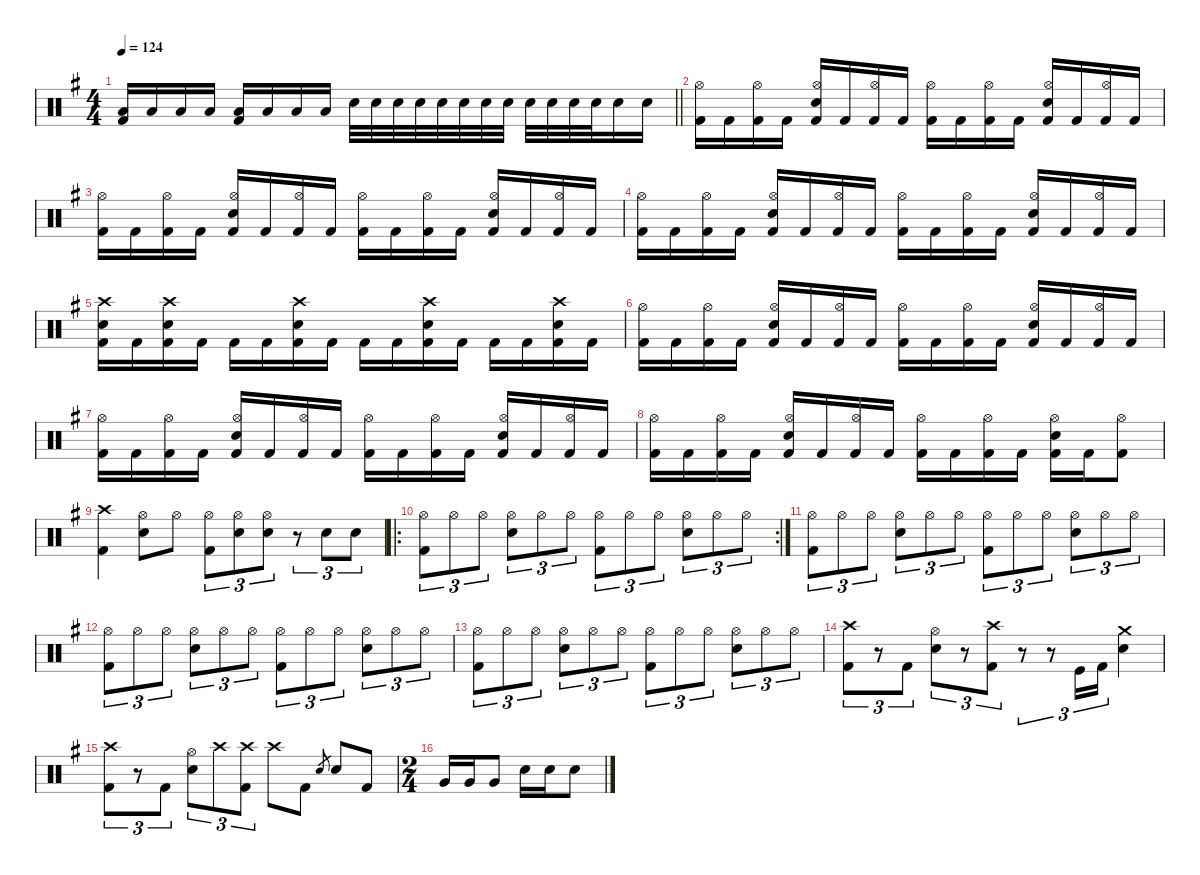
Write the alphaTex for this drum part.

\defaultSystemsLayout 4
\hideDynamics
\bracketExtendMode nobrackets
\singleTrackTrackNamePolicy hidden
\multiTrackTrackNamePolicy hidden
\otherSystemsTrackNameOrientation horizontal
\track ("Drums" "drm.") {defaultSystemsLayout 4 instrument percussion}
\staff {score}
\articulation defaults
\ts (4 4)
\tempo 124
\clef neutral
\barLineRight lightlight
\ks eminor
("Low Floor Tom (hit)"{acc forcenatural} "Kick (hit) 2"{acc forcenatural}).16{dy mf beam Up} "Low Floor Tom (hit)"{acc forcenatural}.16{dy mp beam Up} "Low Floor Tom (hit)"{acc forcenatural}.16{dy mf beam Up} "Low Floor Tom (hit)"{acc forcenatural}.16{dy mp beam Up} ("Low Floor Tom (hit)"{acc forcenatural} "Kick (hit) 2"{acc forcenatural}).16{dy mf beam Up} "Low Floor Tom (hit)"{acc forcenatural}.16{dy mp beam Up} "Low Floor Tom (hit)"{acc forcenatural}.16{dy mf beam Up} "Low Floor Tom (hit)"{acc forcenatural}.16{dy p beam Up} "Snare (hit) 2"{acc forcenatural}.32{dy ff beam Down} "Snare (hit) 2"{acc forcenatural}.32{dy mp beam Down} "Snare (hit) 2"{acc forcenatural}.32{dy mf beam Down} "Snare (hit) 2"{acc forcenatural}.32{dy pp beam Down} "Snare (hit) 2"{acc forcenatural}.32{dy ff beam Down} "Snare (hit) 2"{acc forcenatural}.32{dy mp beam Down} "Snare (hit) 2"{acc forcenatural}.32{dy mf beam Down} "Snare (hit) 2"{acc forcenatural}.32{dy pp beam Down} "Snare (hit) 2"{acc forcenatural}.32{dy ff beam Down} "Snare (hit) 2"{acc forcenatural}.32{dy mp beam Down} "Snare (hit) 2"{acc forcenatural}.32{dy mf beam Down} "Snare (hit) 2"{acc forcenatural}.32{dy pp beam Down} "Snare (hit) 2"{acc forcenatural}.16{dy ff beam Down} "Snare (hit) 2"{acc forcenatural}.16{beam Down} |
("Hi-Hat (open)"{acc forcenatural} "Kick (hit) 2"{acc forcenatural}).16{dy mf beam Down} "Kick (hit) 2"{acc forcenatural}.16{dy ff beam Down} ("Hi-Hat (open)"{acc forcenatural} "Kick (hit) 2"{acc forcenatural}).16{dy mf beam Down} "Kick (hit) 2"{acc forcenatural}.16{dy ff beam Down} ("Hi-Hat (open)"{acc forcenatural} "Snare (hit) 2"{acc forcenatural} "Kick (hit) 2"{acc forcenatural}).16{dy mf beam Up} "Kick (hit) 2"{acc forcenatural}.16{dy ff beam Up} ("Hi-Hat (open)"{acc forcenatural} "Kick (hit) 2"{acc forcenatural}).16{dy mf beam Up} "Kick (hit) 2"{acc forcenatural}.16{dy ff beam Up} ("Hi-Hat (open)"{acc forcenatural} "Kick (hit) 2"{acc forcenatural}).16{dy mf beam Down} "Kick (hit) 2"{acc forcenatural}.16{dy ff beam Down} ("Hi-Hat (open)"{acc forcenatural} "Kick (hit) 2"{acc forcenatural}).16{dy mf beam Down} "Kick (hit) 2"{acc forcenatural}.16{dy ff beam Down} ("Hi-Hat (open)"{acc forcenatural} "Snare (hit) 2"{acc forcenatural} "Kick (hit) 2"{acc forcenatural}).16{dy mf beam Up} "Kick (hit) 2"{acc forcenatural}.16{dy ff beam Up} ("Hi-Hat (open)"{acc forcenatural} "Kick (hit) 2"{acc forcenatural}).16{dy mf beam Up} "Kick (hit) 2"{acc forcenatural}.16{dy ff beam Up} |
("Hi-Hat (open)"{acc forcenatural} "Kick (hit) 2"{acc forcenatural}).16{dy mf beam Down} "Kick (hit) 2"{acc forcenatural}.16{dy ff beam Down} ("Hi-Hat (open)"{acc forcenatural} "Kick (hit) 2"{acc forcenatural}).16{dy mf beam Down} "Kick (hit) 2"{acc forcenatural}.16{dy ff beam Down} ("Hi-Hat (open)"{acc forcenatural} "Snare (hit) 2"{acc forcenatural} "Kick (hit) 2"{acc forcenatural}).16{dy mf beam Up} "Kick (hit) 2"{acc forcenatural}.16{dy ff beam Up} ("Hi-Hat (open)"{acc forcenatural} "Kick (hit) 2"{acc forcenatural}).16{dy mf beam Up} "Kick (hit) 2"{acc forcenatural}.16{dy ff beam Up} ("Hi-Hat (open)"{acc forcenatural} "Kick (hit) 2"{acc forcenatural}).16{dy mf beam Down} "Kick (hit) 2"{acc forcenatural}.16{dy ff beam Down} ("Hi-Hat (open)"{acc forcenatural} "Kick (hit) 2"{acc forcenatural}).16{dy mf beam Down} "Kick (hit) 2"{acc forcenatural}.16{dy ff beam Down} ("Hi-Hat (open)"{acc forcenatural} "Snare (hit) 2"{acc forcenatural} "Kick (hit) 2"{acc forcenatural}).16{dy mf beam Up} "Kick (hit) 2"{acc forcenatural}.16{dy ff beam Up} ("Hi-Hat (open)"{acc forcenatural} "Kick (hit) 2"{acc forcenatural}).16{dy mp beam Up} "Kick (hit) 2"{acc forcenatural}.16{dy ff beam Up} |
("Hi-Hat (open)"{acc forcenatural} "Kick (hit) 2"{acc forcenatural}).16{dy mf beam Down} "Kick (hit) 2"{acc forcenatural}.16{dy ff beam Down} ("Hi-Hat (open)"{acc forcenatural} "Kick (hit) 2"{acc forcenatural}).16{dy mf beam Down} "Kick (hit) 2"{acc forcenatural}.16{dy ff beam Down} ("Hi-Hat (open)"{acc forcenatural} "Snare (hit) 2"{acc forcenatural} "Kick (hit) 2"{acc forcenatural}).16{dy mf beam Up} "Kick (hit) 2"{acc forcenatural}.16{dy ff beam Up} ("Hi-Hat (open)"{acc forcenatural} "Kick (hit) 2"{acc forcenatural}).16{dy mp beam Up} "Kick (hit) 2"{acc forcenatural}.16{dy ff beam Up} ("Hi-Hat (open)"{acc forcenatural} "Kick (hit) 2"{acc forcenatural}).16{dy mf beam Down} "Kick (hit) 2"{acc forcenatural}.16{dy ff beam Down} ("Hi-Hat (open)"{acc forcenatural} "Kick (hit) 2"{acc forcenatural}).16{dy mf beam Down} "Kick (hit) 2"{acc forcenatural}.16{dy ff beam Down} ("Hi-Hat (open)"{acc forcenatural} "Snare (hit) 2"{acc forcenatural} "Kick (hit) 2"{acc forcenatural}).16{dy mf beam Up} "Kick (hit) 2"{acc forcenatural}.16{dy ff beam Up} ("Hi-Hat (open)"{acc forcenatural} "Kick (hit) 2"{acc forcenatural}).16{dy mf beam Up} "Kick (hit) 2"{acc forcenatural}.16{dy ff beam Up} |
("Crash high (hit)"{acc forcenatural} "Snare (hit) 2"{acc forcenatural} "Kick (hit) 2"{acc forcenatural}).16{dy mf beam Down} "Kick (hit) 2"{acc forcenatural}.16{dy ff beam Down} ("Crash high (hit)"{acc forcenatural} "Snare (hit) 2"{acc forcenatural} "Kick (hit) 2"{acc forcenatural}).16{dy mf beam Down} "Kick (hit) 2"{acc forcenatural}.16{dy ff beam Down} "Kick (hit) 2"{acc forcenatural}.16{dy mf beam Down} "Kick (hit) 2"{acc forcenatural}.16{beam Down} ("Crash high (hit)"{acc forcenatural} "Snare (hit) 2"{acc forcenatural} "Kick (hit) 2"{acc forcenatural}).16{beam Down} "Kick (hit) 2"{acc forcenatural}.16{dy ff beam Down} "Kick (hit) 2"{acc forcenatural}.16{dy mf beam Down} "Kick (hit) 2"{acc forcenatural}.16{beam Down} ("Crash high (hit)"{acc forcenatural} "Snare (hit) 2"{acc forcenatural} "Kick (hit) 2"{acc forcenatural}).16{dy f beam Down} "Kick (hit) 2"{acc forcenatural}.16{dy ff beam Down} "Kick (hit) 2"{acc forcenatural}.16{dy mf beam Down} "Kick (hit) 2"{acc forcenatural}.16{beam Down} ("Crash high (hit)"{acc forcenatural} "Snare (hit) 2"{acc forcenatural} "Kick (hit) 2"{acc forcenatural}).16{dy f beam Down} "Kick (hit) 2"{acc forcenatural}.16{dy ff beam Down} |
("Hi-Hat (open)"{acc forcenatural} "Kick (hit) 2"{acc forcenatural}).16{dy mf beam Down} "Kick (hit) 2"{acc forcenatural}.16{dy ff beam Down} ("Hi-Hat (open)"{acc forcenatural} "Kick (hit) 2"{acc forcenatural}).16{dy mf beam Down} "Kick (hit) 2"{acc forcenatural}.16{dy ff beam Down} ("Hi-Hat (open)"{acc forcenatural} "Snare (hit) 2"{acc forcenatural} "Kick (hit) 2"{acc forcenatural}).16{dy mf beam Up} "Kick (hit) 2"{acc forcenatural}.16{dy ff beam Up} ("Hi-Hat (open)"{acc forcenatural} "Kick (hit) 2"{acc forcenatural}).16{dy mf beam Up} "Kick (hit) 2"{acc forcenatural}.16{dy ff beam Up} ("Hi-Hat (open)"{acc forcenatural} "Kick (hit) 2"{acc forcenatural}).16{dy mf beam Down} "Kick (hit) 2"{acc forcenatural}.16{dy ff beam Down} ("Hi-Hat (open)"{acc forcenatural} "Kick (hit) 2"{acc forcenatural}).16{dy mf beam Down} "Kick (hit) 2"{acc forcenatural}.16{dy ff beam Down} ("Hi-Hat (open)"{acc forcenatural} "Snare (hit) 2"{acc forcenatural} "Kick (hit) 2"{acc forcenatural}).16{dy mf beam Up} "Kick (hit) 2"{acc forcenatural}.16{dy ff beam Up} ("Hi-Hat (open)"{acc forcenatural} "Kick (hit) 2"{acc forcenatural}).16{dy mf beam Up} "Kick (hit) 2"{acc forcenatural}.16{dy ff beam Up} |
("Hi-Hat (open)"{acc forcenatural} "Kick (hit) 2"{acc forcenatural}).16{dy mf beam Down} "Kick (hit) 2"{acc forcenatural}.16{dy ff beam Down} ("Hi-Hat (open)"{acc forcenatural} "Kick (hit) 2"{acc forcenatural}).16{dy mf beam Down} "Kick (hit) 2"{acc forcenatural}.16{dy ff beam Down} ("Hi-Hat (open)"{acc forcenatural} "Snare (hit) 2"{acc forcenatural} "Kick (hit) 2"{acc forcenatural}).16{dy mf beam Up} "Kick (hit) 2"{acc forcenatural}.16{dy ff beam Up} ("Hi-Hat (open)"{acc forcenatural} "Kick (hit) 2"{acc forcenatural}).16{dy mf beam Up} "Kick (hit) 2"{acc forcenatural}.16{dy ff beam Up} ("Hi-Hat (open)"{acc forcenatural} "Kick (hit) 2"{acc forcenatural}).16{dy mf beam Down} "Kick (hit) 2"{acc forcenatural}.16{dy ff beam Down} ("Hi-Hat (open)"{acc forcenatural} "Kick (hit) 2"{acc forcenatural}).16{dy mf beam Down} "Kick (hit) 2"{acc forcenatural}.16{dy ff beam Down} ("Hi-Hat (open)"{acc forcenatural} "Snare (hit) 2"{acc forcenatural} "Kick (hit) 2"{acc forcenatural}).16{dy mf beam Up} "Kick (hit) 2"{acc forcenatural}.16{dy ff beam Up} ("Hi-Hat (open)"{acc forcenatural} "Kick (hit) 2"{acc forcenatural}).16{dy mf beam Up} "Kick (hit) 2"{acc forcenatural}.16{dy ff beam Up} |
("Hi-Hat (open)"{acc forcenatural} "Kick (hit) 2"{acc forcenatural}).16{dy mf beam Down} "Kick (hit) 2"{acc forcenatural}.16{dy ff beam Down} ("Hi-Hat (open)"{acc forcenatural} "Kick (hit) 2"{acc forcenatural}).16{dy mf beam Down} "Kick (hit) 2"{acc forcenatural}.16{dy ff beam Down} ("Hi-Hat (open)"{acc forcenatural} "Snare (hit) 2"{acc forcenatural} "Kick (hit) 2"{acc forcenatural}).16{dy mf beam Up} "Kick (hit) 2"{acc forcenatural}.16{dy ff beam Up} ("Hi-Hat (open)"{acc forcenatural} "Kick (hit) 2"{acc forcenatural}).16{dy mf beam Up} "Kick (hit) 2"{acc forcenatural}.16{dy ff beam Up} ("Hi-Hat (open)"{acc forcenatural} "Kick (hit) 2"{acc forcenatural}).16{dy mf beam Down} "Kick (hit) 2"{acc forcenatural}.16{dy ff beam Down} ("Hi-Hat (open)"{acc forcenatural} "Kick (hit) 2"{acc forcenatural}).16{dy mf beam Down} "Kick (hit) 2"{acc forcenatural}.16{dy ff beam Down} ("Hi-Hat (open)"{acc forcenatural} "Snare (hit) 2"{acc forcenatural} "Kick (hit) 2"{acc forcenatural}).16{dy mf beam Down} "Kick (hit) 2"{acc forcenatural}.16{dy ff beam Down} ("Hi-Hat (open)"{acc forcenatural} "Kick (hit) 2"{acc forcenatural}).8{dy mf beam Down} |
("Crash high (hit)"{acc forcenatural} "Kick (hit) 2"{acc forcenatural}).4{dy f beam Down} ("Hi-Hat (open)"{acc forcenatural} "Snare (hit) 2"{acc forcenatural}).8{dy mf beam Down} "Hi-Hat (open)"{acc forcenatural}.8{beam Down} ("Hi-Hat (open)"{acc forcenatural} "Kick (hit) 2"{acc forcenatural}).8{tu (3 2) beam Down} ("Hi-Hat (open)"{acc forcenatural} "Snare (hit) 2"{acc forcenatural}).8{tu (3 2) dy f beam Down} ("Hi-Hat (open)"{acc forcenatural} "Snare (hit) 2"{acc forcenatural}).8{tu (3 2) beam Down} r.8{tu (3 2) beam Down} "Snare (hit) 2"{acc forcenatural}.8{tu (3 2) dy ff beam Down} "Snare (hit) 2"{acc forcenatural}.8{tu (3 2) beam Down} |
\ro
\rc 2
("Hi-Hat (open)"{acc forcenatural} "Kick (hit) 2"{acc forcenatural}).8{tu (3 2) dy mp beam Down} "Hi-Hat (open)"{acc forcenatural}.8{tu (3 2) beam Down} "Hi-Hat (open)"{acc forcenatural}.8{tu (3 2) beam Down} ("Hi-Hat (open)"{acc forcenatural} "Snare (hit) 2"{acc forcenatural}).8{tu (3 2) beam Down} "Hi-Hat (open)"{acc forcenatural}.8{tu (3 2) beam Down} "Hi-Hat (open)"{acc forcenatural}.8{tu (3 2) beam Down} ("Hi-Hat (open)"{acc forcenatural} "Kick (hit) 2"{acc forcenatural}).8{tu (3 2) beam Down} "Hi-Hat (open)"{acc forcenatural}.8{tu (3 2) beam Down} "Hi-Hat (open)"{acc forcenatural}.8{tu (3 2) beam Down} ("Hi-Hat (open)"{acc forcenatural} "Snare (hit) 2"{acc forcenatural}).8{tu (3 2) beam Down} "Hi-Hat (open)"{acc forcenatural}.8{tu (3 2) beam Down} "Hi-Hat (open)"{acc forcenatural}.8{tu (3 2) beam Down} |
("Hi-Hat (open)"{acc forcenatural} "Kick (hit) 2"{acc forcenatural}).8{tu (3 2) beam Down} "Hi-Hat (open)"{acc forcenatural}.8{tu (3 2) beam Down} "Hi-Hat (open)"{acc forcenatural}.8{tu (3 2) beam Down} ("Hi-Hat (open)"{acc forcenatural} "Snare (hit) 2"{acc forcenatural}).8{tu (3 2) beam Down} "Hi-Hat (open)"{acc forcenatural}.8{tu (3 2) beam Down} "Hi-Hat (open)"{acc forcenatural}.8{tu (3 2) beam Down} ("Hi-Hat (open)"{acc forcenatural} "Kick (hit) 2"{acc forcenatural}).8{tu (3 2) beam Down} "Hi-Hat (open)"{acc forcenatural}.8{tu (3 2) beam Down} "Hi-Hat (open)"{acc forcenatural}.8{tu (3 2) beam Down} ("Hi-Hat (open)"{acc forcenatural} "Snare (hit) 2"{acc forcenatural}).8{tu (3 2) beam Down} "Hi-Hat (open)"{acc forcenatural}.8{tu (3 2) beam Down} "Hi-Hat (open)"{acc forcenatural}.8{tu (3 2) beam Down} |
("Hi-Hat (open)"{acc forcenatural} "Kick (hit) 2"{acc forcenatural}).8{tu (3 2) beam Down} "Hi-Hat (open)"{acc forcenatural}.8{tu (3 2) beam Down} "Hi-Hat (open)"{acc forcenatural}.8{tu (3 2) beam Down} ("Hi-Hat (open)"{acc forcenatural} "Snare (hit) 2"{acc forcenatural}).8{tu (3 2) beam Down} "Hi-Hat (open)"{acc forcenatural}.8{tu (3 2) beam Down} "Hi-Hat (open)"{acc forcenatural}.8{tu (3 2) beam Down} ("Hi-Hat (open)"{acc forcenatural} "Kick (hit) 2"{acc forcenatural}).8{tu (3 2) beam Down} "Hi-Hat (open)"{acc forcenatural}.8{tu (3 2) beam Down} "Hi-Hat (open)"{acc forcenatural}.8{tu (3 2) beam Down} ("Hi-Hat (open)"{acc forcenatural} "Snare (hit) 2"{acc forcenatural}).8{tu (3 2) beam Down} "Hi-Hat (open)"{acc forcenatural}.8{tu (3 2) beam Down} "Hi-Hat (open)"{acc forcenatural}.8{tu (3 2) beam Down} |
("Hi-Hat (open)"{acc forcenatural} "Kick (hit) 2"{acc forcenatural}).8{tu (3 2) beam Down} "Hi-Hat (open)"{acc forcenatural}.8{tu (3 2) beam Down} "Hi-Hat (open)"{acc forcenatural}.8{tu (3 2) beam Down} ("Hi-Hat (open)"{acc forcenatural} "Snare (hit) 2"{acc forcenatural}).8{tu (3 2) beam Down} "Hi-Hat (open)"{acc forcenatural}.8{tu (3 2) beam Down} "Hi-Hat (open)"{acc forcenatural}.8{tu (3 2) beam Down} ("Hi-Hat (open)"{acc forcenatural} "Kick (hit) 2"{acc forcenatural}).8{tu (3 2) beam Down} "Hi-Hat (open)"{acc forcenatural}.8{tu (3 2) beam Down} "Hi-Hat (open)"{acc forcenatural}.8{tu (3 2) beam Down} ("Hi-Hat (open)"{acc forcenatural} "Snare (hit) 2"{acc forcenatural}).8{tu (3 2) beam Down} "Hi-Hat (open)"{acc forcenatural}.8{tu (3 2) beam Down} "Hi-Hat (open)"{acc forcenatural}.8{tu (3 2) beam Down} |
("Crash high (hit)"{acc forcenatural} "Kick (hit) 2"{acc forcenatural}).8{tu (3 2) beam Down} r.8{tu (3 2) beam Down} "Kick (hit) 2"{acc forcenatural}.8{tu (3 2) dy ff beam Down} ("Hi-Hat (open)"{acc forcenatural} "Snare (hit) 2"{acc forcenatural}).8{tu (3 2) dy mf beam Down} r.8{tu (3 2) beam Down} ("Crash high (hit)"{acc forcenatural} "Kick (hit) 2"{acc forcenatural}).8{tu (3 2) beam Down} r.8{tu (3 2) beam Down} r.8{tu (3 2) beam Down} "Kick (hit)"{acc forcenatural}.16{tu (3 2) dy ff beam Up} "Kick (hit) 2"{acc forcenatural}.16{tu (3 2) beam Up} ("Crash medium (hit)"{acc forcenatural} "Snare (hit) 2"{acc forcenatural}).4{dy mf beam Down} |
("Crash high (hit)"{acc forcenatural} "Kick (hit) 2"{acc forcenatural}).8{tu (3 2) beam Down} r.8{tu (3 2) beam Down} "Kick (hit) 2"{acc forcenatural}.8{tu (3 2) dy ff beam Down} ("Hi-Hat (open)"{acc forcenatural} "Snare (hit) 2"{acc forcenatural}).8{tu (3 2) dy mf beam Down} "Crash high (hit)"{acc forcenatural}.8{tu (3 2) dy ppp beam Down} ("Crash high (hit)"{acc forcenatural} "Kick (hit) 2"{acc forcenatural}).8{tu (3 2) dy mf beam Down} "Crash high (hit)"{acc forcenatural}.8{dy ppp beam Down} "Kick (hit) 2"{acc forcenatural}.8{dy ff beam Down} "Electric Snare (hit)"{acc forcenatural}.8{gr dy mp beam Up} "Snare (hit) 2"{acc forcenatural}.8{dy ff beam Up} "Kick (hit) 2"{acc forcenatural}.8{beam Up} |
\ts (2 4)
\beaming (8 2 2)
"Very Low Tom (hit)"{acc forcenatural}.16{dy f beam Up} "Very Low Tom (hit)"{acc forcenatural}.16{beam Up} "Very Low Tom (hit)"{acc forcenatural}.8{beam Up} "Snare (hit) 2"{acc forcenatural}.16{beam Down} "Snare (hit) 2"{acc forcenatural}.16{dy mf beam Down} "Snare (hit) 2"{acc forcenatural}.8{dy ff beam Down}
